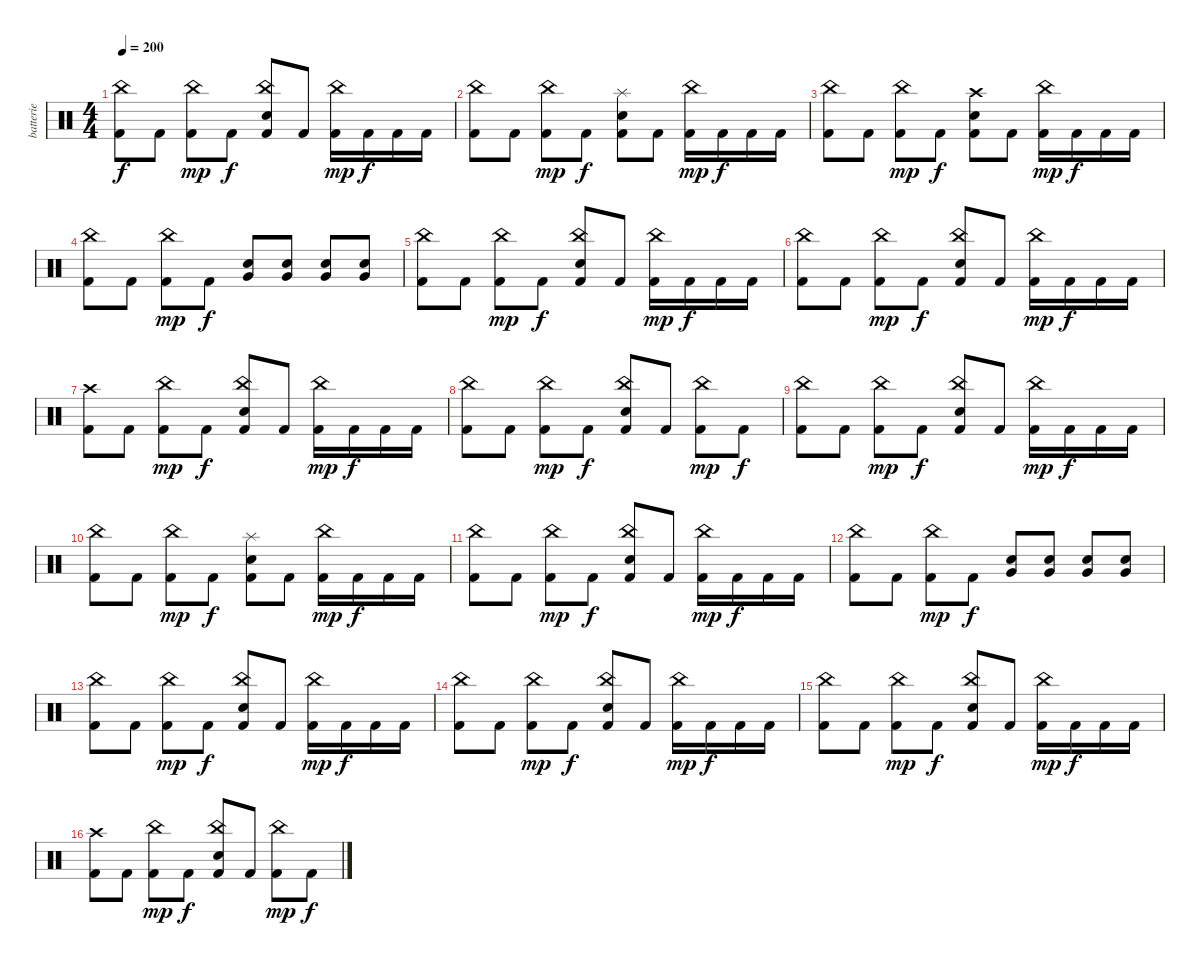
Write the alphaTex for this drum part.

\track ("batterie" "batterie") {instrument percussion}
\staff {score}
\articulation defaults
\ts (4 4)
\tempo 200
\clef neutral
\ks c
("Kick (hit) 2" "China (hit)").8{dy f} "Kick (hit) 2".8 ("Kick (hit) 2" "China (hit)").8{dy mp} "Kick (hit) 2".8{dy f} ("Kick (hit) 2" "Electric Snare (hit)" "China (hit)").8 "Kick (hit) 2".8 ("Kick (hit) 2" "China (hit)").16{dy mp} "Kick (hit) 2".16{dy f} "Kick (hit) 2".16 "Kick (hit) 2".16 |
("Kick (hit) 2" "China (hit)").8 "Kick (hit) 2".8 ("Kick (hit) 2" "China (hit)").8{dy mp} "Kick (hit) 2".8{dy f} ("Kick (hit) 2" "Electric Snare (hit)" "Splash (hit)").8 "Kick (hit) 2".8 ("Kick (hit) 2" "China (hit)").16{dy mp} "Kick (hit) 2".16{dy f} "Kick (hit) 2".16 "Kick (hit) 2".16 |
("Kick (hit) 2" "China (hit)").8 "Kick (hit) 2".8 ("Kick (hit) 2" "China (hit)").8{dy mp} "Kick (hit) 2".8{dy f} ("Kick (hit) 2" "Electric Snare (hit)" "Crash high (hit)").8 "Kick (hit) 2".8 ("Kick (hit) 2" "China (hit)").16{dy mp} "Kick (hit) 2".16{dy f} "Kick (hit) 2".16 "Kick (hit) 2".16 |
("Kick (hit) 2" "China (hit)").8 "Kick (hit) 2".8 ("Kick (hit) 2" "China (hit)").8{dy mp} "Kick (hit) 2".8{dy f} ("Electric Snare (hit)" "Very Low Tom (hit)").8 ("Electric Snare (hit)" "Very Low Tom (hit)").8 ("Electric Snare (hit)" "Very Low Tom (hit)").8 ("Electric Snare (hit)" "Very Low Tom (hit)").8 |
("Kick (hit) 2" "China (hit)").8 "Kick (hit) 2".8 ("Kick (hit) 2" "China (hit)").8{dy mp} "Kick (hit) 2".8{dy f} ("Kick (hit) 2" "Electric Snare (hit)" "China (hit)").8 "Kick (hit) 2".8 ("Kick (hit) 2" "China (hit)").16{dy mp} "Kick (hit) 2".16{dy f} "Kick (hit) 2".16 "Kick (hit) 2".16 |
("Kick (hit) 2" "China (hit)").8 "Kick (hit) 2".8 ("Kick (hit) 2" "China (hit)").8{dy mp} "Kick (hit) 2".8{dy f} ("Kick (hit) 2" "Electric Snare (hit)" "China (hit)").8 "Kick (hit) 2".8 ("Kick (hit) 2" "China (hit)").16{dy mp} "Kick (hit) 2".16{dy f} "Kick (hit) 2".16 "Kick (hit) 2".16 |
("Kick (hit) 2" "Crash high (hit)").8 "Kick (hit) 2".8 ("Kick (hit) 2" "China (hit)").8{dy mp} "Kick (hit) 2".8{dy f} ("Kick (hit) 2" "Electric Snare (hit)" "China (hit)").8 "Kick (hit) 2".8 ("Kick (hit) 2" "China (hit)").16{dy mp} "Kick (hit) 2".16{dy f} "Kick (hit) 2".16 "Kick (hit) 2".16 |
("Kick (hit) 2" "China (hit)").8 "Kick (hit) 2".8 ("Kick (hit) 2" "China (hit)").8{dy mp} "Kick (hit) 2".8{dy f} ("Kick (hit) 2" "Electric Snare (hit)" "China (hit)").8 "Kick (hit) 2".8 ("Kick (hit) 2" "China (hit)").8{dy mp} "Kick (hit) 2".8{dy f} |
("Kick (hit) 2" "China (hit)").8 "Kick (hit) 2".8 ("Kick (hit) 2" "China (hit)").8{dy mp} "Kick (hit) 2".8{dy f} ("Kick (hit) 2" "Electric Snare (hit)" "China (hit)").8 "Kick (hit) 2".8 ("Kick (hit) 2" "China (hit)").16{dy mp} "Kick (hit) 2".16{dy f} "Kick (hit) 2".16 "Kick (hit) 2".16 |
("Kick (hit) 2" "China (hit)").8 "Kick (hit) 2".8 ("Kick (hit) 2" "China (hit)").8{dy mp} "Kick (hit) 2".8{dy f} ("Kick (hit) 2" "Electric Snare (hit)" "Splash (hit)").8 "Kick (hit) 2".8 ("Kick (hit) 2" "China (hit)").16{dy mp} "Kick (hit) 2".16{dy f} "Kick (hit) 2".16 "Kick (hit) 2".16 |
("Kick (hit) 2" "China (hit)").8 "Kick (hit) 2".8 ("Kick (hit) 2" "China (hit)").8{dy mp} "Kick (hit) 2".8{dy f} ("Kick (hit) 2" "Electric Snare (hit)" "China (hit)").8 "Kick (hit) 2".8 ("Kick (hit) 2" "China (hit)").16{dy mp} "Kick (hit) 2".16{dy f} "Kick (hit) 2".16 "Kick (hit) 2".16 |
("Kick (hit) 2" "China (hit)").8 "Kick (hit) 2".8 ("Kick (hit) 2" "China (hit)").8{dy mp} "Kick (hit) 2".8{dy f} ("Electric Snare (hit)" "Very Low Tom (hit)").8 ("Electric Snare (hit)" "Very Low Tom (hit)").8 ("Electric Snare (hit)" "Very Low Tom (hit)").8 ("Electric Snare (hit)" "Very Low Tom (hit)").8 |
("Kick (hit) 2" "China (hit)").8 "Kick (hit) 2".8 ("Kick (hit) 2" "China (hit)").8{dy mp} "Kick (hit) 2".8{dy f} ("Kick (hit) 2" "Electric Snare (hit)" "China (hit)").8 "Kick (hit) 2".8 ("Kick (hit) 2" "China (hit)").16{dy mp} "Kick (hit) 2".16{dy f} "Kick (hit) 2".16 "Kick (hit) 2".16 |
("Kick (hit) 2" "China (hit)").8 "Kick (hit) 2".8 ("Kick (hit) 2" "China (hit)").8{dy mp} "Kick (hit) 2".8{dy f} ("Kick (hit) 2" "Electric Snare (hit)" "China (hit)").8 "Kick (hit) 2".8 ("Kick (hit) 2" "China (hit)").16{dy mp} "Kick (hit) 2".16{dy f} "Kick (hit) 2".16 "Kick (hit) 2".16 |
("Kick (hit) 2" "China (hit)").8 "Kick (hit) 2".8 ("Kick (hit) 2" "China (hit)").8{dy mp} "Kick (hit) 2".8{dy f} ("Kick (hit) 2" "Electric Snare (hit)" "China (hit)").8 "Kick (hit) 2".8 ("Kick (hit) 2" "China (hit)").16{dy mp} "Kick (hit) 2".16{dy f} "Kick (hit) 2".16 "Kick (hit) 2".16 |
("Kick (hit) 2" "Crash high (hit)").8 "Kick (hit) 2".8 ("Kick (hit) 2" "China (hit)").8{dy mp} "Kick (hit) 2".8{dy f} ("Kick (hit) 2" "Electric Snare (hit)" "China (hit)").8 "Kick (hit) 2".8 ("Kick (hit) 2" "China (hit)").8{dy mp} "Kick (hit) 2".8{dy f}
